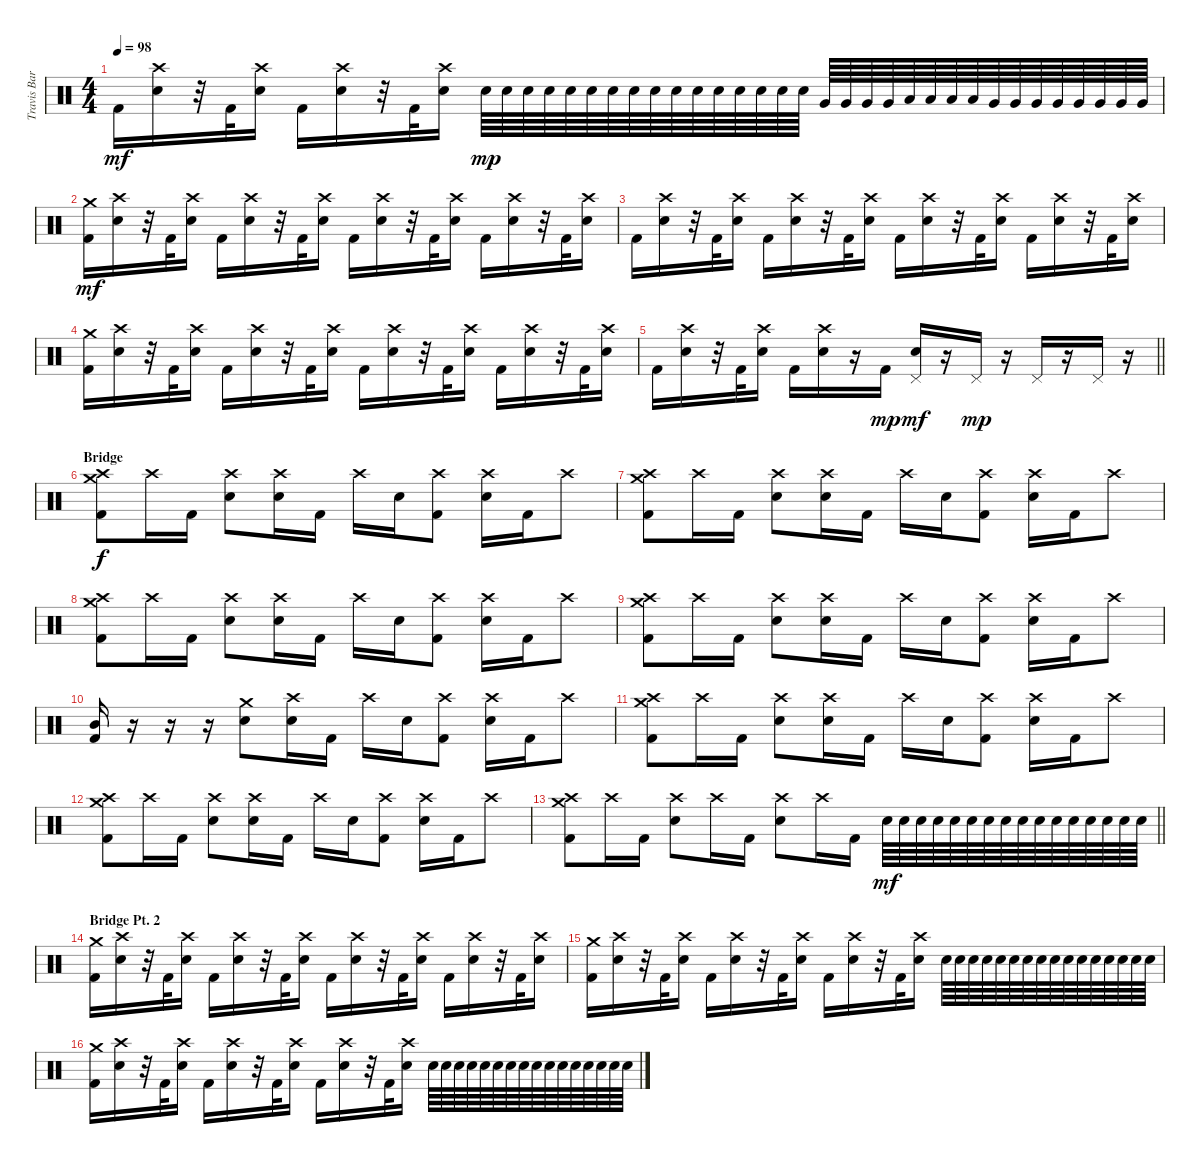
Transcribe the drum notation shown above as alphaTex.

\track ("Travis Barker" "Travis Bar") {instrument percussion}
\staff {score}
\articulation defaults
\ts (4 4)
\tempo 98
\clef neutral
\ks c "Kick (hit) 2".16{dy mf}
("Crash high (hit)" "Electric Snare (hit)").16 r.32 "Kick (hit) 2".32 ("Crash high (hit)" "Electric Snare (hit)").16 "Kick (hit) 2".16 ("Crash high (hit)" "Electric Snare (hit)").16 r.32 "Kick (hit) 2".32 ("Crash high (hit)" "Electric Snare (hit)").16 "Electric Snare (hit)".64{dy mp} "Electric Snare (hit)".64 "Electric Snare (hit)".64 "Electric Snare (hit)".64 "Electric Snare (hit)".64 "Electric Snare (hit)".64 "Electric Snare (hit)".64 "Electric Snare (hit)".64 "Electric Snare (hit)".64 "Electric Snare (hit)".64 "Electric Snare (hit)".64 "Electric Snare (hit)".64 "Electric Snare (hit)".64 "Electric Snare (hit)".64 "Electric Snare (hit)".64 "Electric Snare (hit)".64 "Very Low Tom (hit)".64 "Very Low Tom (hit)".64 "Very Low Tom (hit)".64 "Very Low Tom (hit)".64 "Low Tom (hit)".64 "Low Tom (hit)".64 "Low Tom (hit)".64 "Low Tom (hit)".64 "Very Low Tom (hit)".64 "Very Low Tom (hit)".64 "Very Low Tom (hit)".64 "Very Low Tom (hit)".64 "Very Low Tom (hit)".64 "Very Low Tom (hit)".64 "Very Low Tom (hit)".64 "Very Low Tom (hit)".64 |
("Crash medium (hit)" "Kick (hit) 2").16{dy mf} ("Crash high (hit)" "Electric Snare (hit)").16 r.32 "Kick (hit) 2".32 ("Crash high (hit)" "Electric Snare (hit)").16 "Kick (hit) 2".16 ("Crash high (hit)" "Electric Snare (hit)").16 r.32 "Kick (hit) 2".32 ("Crash high (hit)" "Electric Snare (hit)").16 "Kick (hit) 2".16 ("Crash high (hit)" "Electric Snare (hit)").16 r.32 "Kick (hit) 2".32 ("Crash high (hit)" "Electric Snare (hit)").16 "Kick (hit) 2".16 ("Crash high (hit)" "Electric Snare (hit)").16 r.32 "Kick (hit) 2".32 ("Crash high (hit)" "Electric Snare (hit)").16 |
"Kick (hit) 2".16 ("Crash high (hit)" "Electric Snare (hit)").16 r.32 "Kick (hit) 2".32 ("Crash high (hit)" "Electric Snare (hit)").16 "Kick (hit) 2".16 ("Crash high (hit)" "Electric Snare (hit)").16 r.32 "Kick (hit) 2".32 ("Crash high (hit)" "Electric Snare (hit)").16 "Kick (hit) 2".16 ("Crash high (hit)" "Electric Snare (hit)").16 r.32 "Kick (hit) 2".32 ("Crash high (hit)" "Electric Snare (hit)").16 "Kick (hit) 2".16 ("Crash high (hit)" "Electric Snare (hit)").16 r.32 "Kick (hit) 2".32 ("Crash high (hit)" "Electric Snare (hit)").16 |
("Crash medium (hit)" "Kick (hit) 2").16 ("Crash high (hit)" "Electric Snare (hit)").16 r.32 "Kick (hit) 2".32 ("Crash high (hit)" "Electric Snare (hit)").16 "Kick (hit) 2".16 ("Crash high (hit)" "Electric Snare (hit)").16 r.32 "Kick (hit) 2".32 ("Crash high (hit)" "Electric Snare (hit)").16 "Kick (hit) 2".16 ("Crash high (hit)" "Electric Snare (hit)").16 r.32 "Kick (hit) 2".32 ("Crash high (hit)" "Electric Snare (hit)").16 "Kick (hit) 2".16 ("Crash high (hit)" "Electric Snare (hit)").16 r.32 "Kick (hit) 2".32 ("Crash high (hit)" "Electric Snare (hit)").16 |
\barLineRight lightlight "Kick (hit) 2".16
("Crash high (hit)" "Electric Snare (hit)").16 r.32 "Kick (hit) 2".32 ("Crash high (hit)" "Electric Snare (hit)").16 "Kick (hit) 2".16 ("Crash high (hit)" "Electric Snare (hit)").16 r.16 "Kick (hit) 2".16{dy mp} ("Pedal Hi-Hat (hit)" "Electric Snare (hit)").16{dy mf} r.16 "Pedal Hi-Hat (hit)".16{dy mp} r.16 "Pedal Hi-Hat (hit)".16 r.16 "Pedal Hi-Hat (hit)".16 r.16 |
\section ("" "Bridge")
("Crash medium (hit)" "Crash high (hit)" "Kick (hit) 2").8{dy f} "Crash high (hit)".16 "Kick (hit) 2".16 ("Crash high (hit)" "Electric Snare (hit)").8 ("Crash high (hit)" "Electric Snare (hit)").16 "Kick (hit) 2".16 "Crash high (hit)".16 "Electric Snare (hit)".16 ("Crash high (hit)" "Kick (hit) 2").8 ("Crash high (hit)" "Electric Snare (hit)").16 "Kick (hit) 2".16 "Crash high (hit)".8 |
("Crash medium (hit)" "Crash high (hit)" "Kick (hit) 2").8 "Crash high (hit)".16 "Kick (hit) 2".16 ("Crash high (hit)" "Electric Snare (hit)").8 ("Crash high (hit)" "Electric Snare (hit)").16 "Kick (hit) 2".16 "Crash high (hit)".16 "Electric Snare (hit)".16 ("Crash high (hit)" "Kick (hit) 2").8 ("Crash high (hit)" "Electric Snare (hit)").16 "Kick (hit) 2".16 "Crash high (hit)".8 |
("Crash medium (hit)" "Crash high (hit)" "Kick (hit) 2").8 "Crash high (hit)".16 "Kick (hit) 2".16 ("Crash high (hit)" "Electric Snare (hit)").8 ("Crash high (hit)" "Electric Snare (hit)").16 "Kick (hit) 2".16 "Crash high (hit)".16 "Electric Snare (hit)".16 ("Crash high (hit)" "Kick (hit) 2").8 ("Crash high (hit)" "Electric Snare (hit)").16 "Kick (hit) 2".16 "Crash high (hit)".8 |
("Crash medium (hit)" "Crash high (hit)" "Kick (hit) 2").8 "Crash high (hit)".16 "Kick (hit) 2".16 ("Crash high (hit)" "Electric Snare (hit)").8 ("Crash high (hit)" "Electric Snare (hit)").16 "Kick (hit) 2".16 "Crash high (hit)".16 "Electric Snare (hit)".16 ("Crash high (hit)" "Kick (hit) 2").8 ("Crash high (hit)" "Electric Snare (hit)").16 "Kick (hit) 2".16 "Crash high (hit)".8 |
("Mid Tom (hit)" "Kick (hit) 2").16 r.16 r.16 r.16 ("Crash medium (hit)" "Electric Snare (hit)").8 ("Crash high (hit)" "Electric Snare (hit)").16 "Kick (hit) 2".16 "Crash high (hit)".16 "Electric Snare (hit)".16 ("Crash high (hit)" "Kick (hit) 2").8 ("Crash high (hit)" "Electric Snare (hit)").16 "Kick (hit) 2".16 "Crash high (hit)".8 |
("Crash medium (hit)" "Crash high (hit)" "Kick (hit) 2").8 "Crash high (hit)".16 "Kick (hit) 2".16 ("Crash high (hit)" "Electric Snare (hit)").8 ("Crash high (hit)" "Electric Snare (hit)").16 "Kick (hit) 2".16 "Crash high (hit)".16 "Electric Snare (hit)".16 ("Crash high (hit)" "Kick (hit) 2").8 ("Crash high (hit)" "Electric Snare (hit)").16 "Kick (hit) 2".16 "Crash high (hit)".8 |
("Crash medium (hit)" "Crash high (hit)" "Kick (hit) 2").8 "Crash high (hit)".16 "Kick (hit) 2".16 ("Crash high (hit)" "Electric Snare (hit)").8 ("Crash high (hit)" "Electric Snare (hit)").16 "Kick (hit) 2".16 "Crash high (hit)".16 "Electric Snare (hit)".16 ("Crash high (hit)" "Kick (hit) 2").8 ("Crash high (hit)" "Electric Snare (hit)").16 "Kick (hit) 2".16 "Crash high (hit)".8 |
\barLineRight lightlight
("Crash medium (hit)" "Crash high (hit)" "Kick (hit) 2").8 "Crash high (hit)".16 "Kick (hit) 2".16 ("Crash high (hit)" "Electric Snare (hit)").8 "Crash high (hit)".16 "Kick (hit) 2".16 ("Crash high (hit)" "Electric Snare (hit)").8 "Crash high (hit)".16 "Kick (hit) 2".16 "Electric Snare (hit)".64{dy mf} "Electric Snare (hit)".64 "Electric Snare (hit)".64 "Electric Snare (hit)".64 "Electric Snare (hit)".64 "Electric Snare (hit)".64 "Electric Snare (hit)".64 "Electric Snare (hit)".64 "Electric Snare (hit)".64 "Electric Snare (hit)".64 "Electric Snare (hit)".64 "Electric Snare (hit)".64 "Electric Snare (hit)".64 "Electric Snare (hit)".64 "Electric Snare (hit)".64 "Electric Snare (hit)".64 |
\section ("" "Bridge Pt. 2")
("Crash medium (hit)" "Kick (hit) 2").16 ("Crash high (hit)" "Electric Snare (hit)").16 r.32 "Kick (hit) 2".32 ("Crash high (hit)" "Electric Snare (hit)").16 "Kick (hit) 2".16 ("Crash high (hit)" "Electric Snare (hit)").16 r.32 "Kick (hit) 2".32 ("Crash high (hit)" "Electric Snare (hit)").16 "Kick (hit) 2".16 ("Crash high (hit)" "Electric Snare (hit)").16 r.32 "Kick (hit) 2".32 ("Crash high (hit)" "Electric Snare (hit)").16 "Kick (hit) 2".16 ("Crash high (hit)" "Electric Snare (hit)").16 r.32 "Kick (hit) 2".32 ("Crash high (hit)" "Electric Snare (hit)").16 |
("Crash medium (hit)" "Kick (hit) 2").16 ("Crash high (hit)" "Electric Snare (hit)").16 r.32 "Kick (hit) 2".32 ("Crash high (hit)" "Electric Snare (hit)").16 "Kick (hit) 2".16 ("Crash high (hit)" "Electric Snare (hit)").16 r.32 "Kick (hit) 2".32 ("Crash high (hit)" "Electric Snare (hit)").16 "Kick (hit) 2".16 ("Crash high (hit)" "Electric Snare (hit)").16 r.32 "Kick (hit) 2".32 ("Crash high (hit)" "Electric Snare (hit)").16 "Electric Snare (hit)".64 "Electric Snare (hit)".64 "Electric Snare (hit)".64 "Electric Snare (hit)".64 "Electric Snare (hit)".64 "Electric Snare (hit)".64 "Electric Snare (hit)".64 "Electric Snare (hit)".64 "Electric Snare (hit)".64 "Electric Snare (hit)".64 "Electric Snare (hit)".64 "Electric Snare (hit)".64 "Electric Snare (hit)".64 "Electric Snare (hit)".64 "Electric Snare (hit)".64 "Electric Snare (hit)".64 |
("Crash medium (hit)" "Kick (hit) 2").16 ("Crash high (hit)" "Electric Snare (hit)").16 r.32 "Kick (hit) 2".32 ("Crash high (hit)" "Electric Snare (hit)").16 "Kick (hit) 2".16 ("Crash high (hit)" "Electric Snare (hit)").16 r.32 "Kick (hit) 2".32 ("Crash high (hit)" "Electric Snare (hit)").16 "Kick (hit) 2".16 ("Crash high (hit)" "Electric Snare (hit)").16 r.32 "Kick (hit) 2".32 ("Crash high (hit)" "Electric Snare (hit)").16 "Electric Snare (hit)".64 "Electric Snare (hit)".64 "Electric Snare (hit)".64 "Electric Snare (hit)".64 "Electric Snare (hit)".64 "Electric Snare (hit)".64 "Electric Snare (hit)".64 "Electric Snare (hit)".64 "Electric Snare (hit)".64 "Electric Snare (hit)".64 "Electric Snare (hit)".64 "Electric Snare (hit)".64 "Electric Snare (hit)".64 "Electric Snare (hit)".64 "Electric Snare (hit)".64 "Electric Snare (hit)".64
